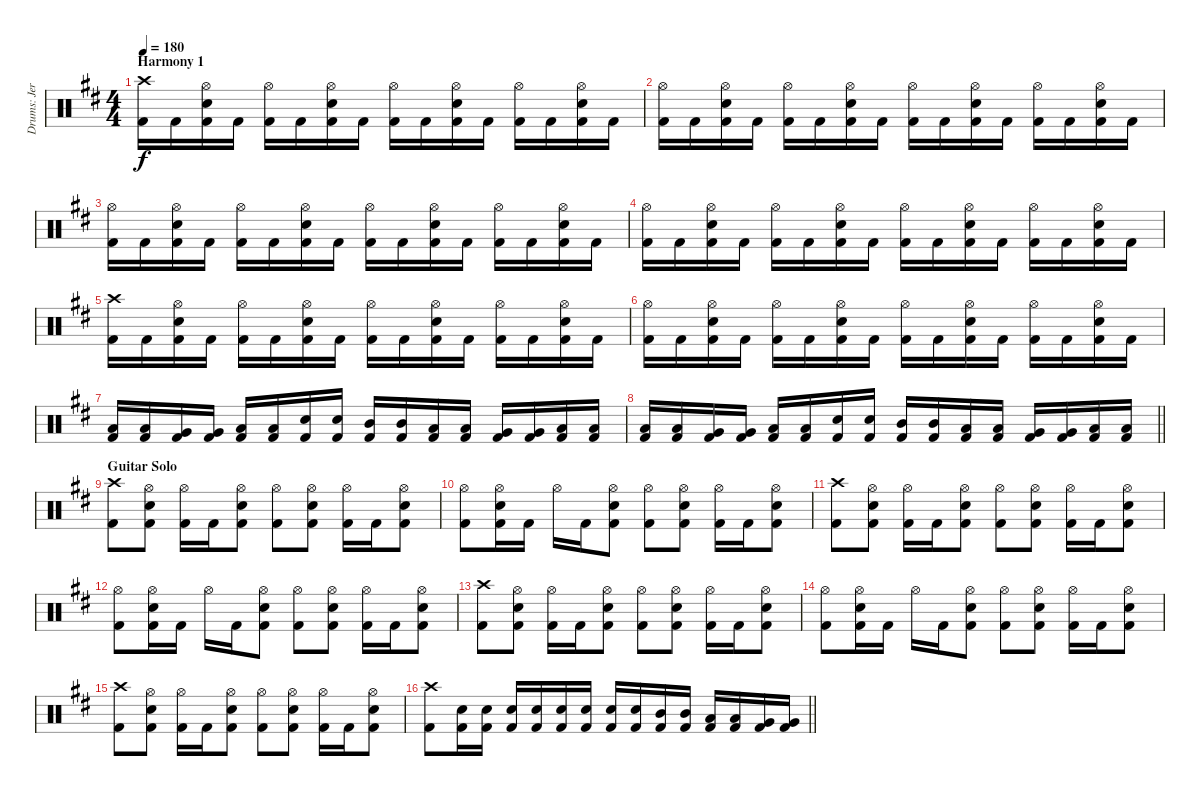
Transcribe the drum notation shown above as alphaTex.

\track ("Drums: Jere Luokkamäki" "Drums: Jer") {instrument percussion}
\staff {score}
\articulation defaults
\ts (4 4)
\section ("" "Harmony 1")
\tempo 180
\clef neutral
\ks bminor
("Crash high (hit)" "Kick (hit) 2").16{dy f} "Kick (hit) 2".16 ("Hi-Hat (open)" "Electric Snare (hit)" "Kick (hit) 2").16 "Kick (hit) 2".16 ("Hi-Hat (open)" "Kick (hit) 2").16 "Kick (hit) 2".16 ("Hi-Hat (open)" "Electric Snare (hit)" "Kick (hit) 2").16 "Kick (hit) 2".16 ("Hi-Hat (open)" "Kick (hit) 2").16 "Kick (hit) 2".16 ("Hi-Hat (open)" "Electric Snare (hit)" "Kick (hit) 2").16 "Kick (hit) 2".16 ("Hi-Hat (open)" "Kick (hit) 2").16 "Kick (hit) 2".16 ("Hi-Hat (open)" "Electric Snare (hit)" "Kick (hit) 2").16 "Kick (hit) 2".16 |
("Hi-Hat (open)" "Kick (hit) 2").16 "Kick (hit) 2".16 ("Hi-Hat (open)" "Electric Snare (hit)" "Kick (hit) 2").16 "Kick (hit) 2".16 ("Hi-Hat (open)" "Kick (hit) 2").16 "Kick (hit) 2".16 ("Hi-Hat (open)" "Electric Snare (hit)" "Kick (hit) 2").16 "Kick (hit) 2".16 ("Hi-Hat (open)" "Kick (hit) 2").16 "Kick (hit) 2".16 ("Hi-Hat (open)" "Electric Snare (hit)" "Kick (hit) 2").16 "Kick (hit) 2".16 ("Hi-Hat (open)" "Kick (hit) 2").16 "Kick (hit) 2".16 ("Hi-Hat (open)" "Electric Snare (hit)" "Kick (hit) 2").16 "Kick (hit) 2".16 |
("Hi-Hat (open)" "Kick (hit) 2").16 "Kick (hit) 2".16 ("Hi-Hat (open)" "Electric Snare (hit)" "Kick (hit) 2").16 "Kick (hit) 2".16 ("Hi-Hat (open)" "Kick (hit) 2").16 "Kick (hit) 2".16 ("Hi-Hat (open)" "Electric Snare (hit)" "Kick (hit) 2").16 "Kick (hit) 2".16 ("Hi-Hat (open)" "Kick (hit) 2").16 "Kick (hit) 2".16 ("Hi-Hat (open)" "Electric Snare (hit)" "Kick (hit) 2").16 "Kick (hit) 2".16 ("Hi-Hat (open)" "Kick (hit) 2").16 "Kick (hit) 2".16 ("Hi-Hat (open)" "Electric Snare (hit)" "Kick (hit) 2").16 "Kick (hit) 2".16 |
("Hi-Hat (open)" "Kick (hit) 2").16 "Kick (hit) 2".16 ("Hi-Hat (open)" "Electric Snare (hit)" "Kick (hit) 2").16 "Kick (hit) 2".16 ("Hi-Hat (open)" "Kick (hit) 2").16 "Kick (hit) 2".16 ("Hi-Hat (open)" "Electric Snare (hit)" "Kick (hit) 2").16 "Kick (hit) 2".16 ("Hi-Hat (open)" "Kick (hit) 2").16 "Kick (hit) 2".16 ("Hi-Hat (open)" "Electric Snare (hit)" "Kick (hit) 2").16 "Kick (hit) 2".16 ("Hi-Hat (open)" "Kick (hit) 2").16 "Kick (hit) 2".16 ("Hi-Hat (open)" "Electric Snare (hit)" "Kick (hit) 2").16 "Kick (hit) 2".16 |
("Crash high (hit)" "Kick (hit) 2").16 "Kick (hit) 2".16 ("Hi-Hat (open)" "Electric Snare (hit)" "Kick (hit) 2").16 "Kick (hit) 2".16 ("Hi-Hat (open)" "Kick (hit) 2").16 "Kick (hit) 2".16 ("Hi-Hat (open)" "Electric Snare (hit)" "Kick (hit) 2").16 "Kick (hit) 2".16 ("Hi-Hat (open)" "Kick (hit) 2").16 "Kick (hit) 2".16 ("Hi-Hat (open)" "Electric Snare (hit)" "Kick (hit) 2").16 "Kick (hit) 2".16 ("Hi-Hat (open)" "Kick (hit) 2").16 "Kick (hit) 2".16 ("Hi-Hat (open)" "Electric Snare (hit)" "Kick (hit) 2").16 "Kick (hit) 2".16 |
("Hi-Hat (open)" "Kick (hit) 2").16 "Kick (hit) 2".16 ("Hi-Hat (open)" "Electric Snare (hit)" "Kick (hit) 2").16 "Kick (hit) 2".16 ("Hi-Hat (open)" "Kick (hit) 2").16 "Kick (hit) 2".16 ("Hi-Hat (open)" "Electric Snare (hit)" "Kick (hit) 2").16 "Kick (hit) 2".16 ("Hi-Hat (open)" "Kick (hit) 2").16 "Kick (hit) 2".16 ("Hi-Hat (open)" "Electric Snare (hit)" "Kick (hit) 2").16 "Kick (hit) 2".16 ("Hi-Hat (open)" "Kick (hit) 2").16 "Kick (hit) 2".16 ("Hi-Hat (open)" "Electric Snare (hit)" "Kick (hit) 2").16 "Kick (hit) 2".16 |
("Low Tom (hit)" "Kick (hit) 2").16 ("Low Tom (hit)" "Kick (hit) 2").16 ("Very Low Tom (hit)" "Kick (hit) 2").16 ("Very Low Tom (hit)" "Kick (hit) 2").16 ("Low Floor Tom (hit)" "Kick (hit) 2").16 ("Low Floor Tom (hit)" "Kick (hit) 2").16 ("Electric Snare (hit)" "Kick (hit) 2").16 ("Electric Snare (hit)" "Kick (hit) 2").16 ("Mid Tom (hit)" "Kick (hit) 2").16 ("Mid Tom (hit)" "Kick (hit) 2").16 ("Low Tom (hit)" "Kick (hit) 2").16 ("Low Tom (hit)" "Kick (hit) 2").16 ("Very Low Tom (hit)" "Kick (hit) 2").16 ("Very Low Tom (hit)" "Kick (hit) 2").16 ("Low Floor Tom (hit)" "Kick (hit) 2").16 ("Low Floor Tom (hit)" "Kick (hit) 2").16 |
\barLineRight lightlight
("Low Tom (hit)" "Kick (hit) 2").16 ("Low Tom (hit)" "Kick (hit) 2").16 ("Very Low Tom (hit)" "Kick (hit) 2").16 ("Very Low Tom (hit)" "Kick (hit) 2").16 ("Low Floor Tom (hit)" "Kick (hit) 2").16 ("Low Floor Tom (hit)" "Kick (hit) 2").16 ("Electric Snare (hit)" "Kick (hit) 2").16 ("Electric Snare (hit)" "Kick (hit) 2").16 ("Mid Tom (hit)" "Kick (hit) 2").16 ("Mid Tom (hit)" "Kick (hit) 2").16 ("Low Tom (hit)" "Kick (hit) 2").16 ("Low Tom (hit)" "Kick (hit) 2").16 ("Very Low Tom (hit)" "Kick (hit) 2").16 ("Very Low Tom (hit)" "Kick (hit) 2").16 ("Low Floor Tom (hit)" "Kick (hit) 2").16 ("Low Floor Tom (hit)" "Kick (hit) 2").16 |
\section ("" "Guitar Solo")
("Crash high (hit)" "Kick (hit) 2").8 ("Hi-Hat (open)" "Electric Snare (hit)" "Kick (hit) 2").8 ("Hi-Hat (open)" "Kick (hit) 2").16 "Kick (hit) 2".16 ("Hi-Hat (open)" "Electric Snare (hit)" "Kick (hit) 2").8 ("Hi-Hat (open)" "Kick (hit) 2").8 ("Hi-Hat (open)" "Electric Snare (hit)" "Kick (hit) 2").8 ("Hi-Hat (open)" "Kick (hit) 2").16 "Kick (hit) 2".16 ("Hi-Hat (open)" "Electric Snare (hit)" "Kick (hit) 2").8 |
("Hi-Hat (open)" "Kick (hit) 2").8 ("Hi-Hat (open)" "Electric Snare (hit)" "Kick (hit) 2").16 "Kick (hit) 2".16 "Hi-Hat (open)".16 "Kick (hit) 2".16 ("Hi-Hat (open)" "Electric Snare (hit)" "Kick (hit) 2").8 ("Hi-Hat (open)" "Kick (hit) 2").8 ("Hi-Hat (open)" "Electric Snare (hit)" "Kick (hit) 2").8 ("Hi-Hat (open)" "Kick (hit) 2").16 "Kick (hit) 2".16 ("Hi-Hat (open)" "Electric Snare (hit)" "Kick (hit) 2").8 |
("Crash high (hit)" "Kick (hit) 2").8 ("Hi-Hat (open)" "Electric Snare (hit)" "Kick (hit) 2").8 ("Hi-Hat (open)" "Kick (hit) 2").16 "Kick (hit) 2".16 ("Hi-Hat (open)" "Electric Snare (hit)" "Kick (hit) 2").8 ("Hi-Hat (open)" "Kick (hit) 2").8 ("Hi-Hat (open)" "Electric Snare (hit)" "Kick (hit) 2").8 ("Hi-Hat (open)" "Kick (hit) 2").16 "Kick (hit) 2".16 ("Hi-Hat (open)" "Electric Snare (hit)" "Kick (hit) 2").8 |
("Hi-Hat (open)" "Kick (hit) 2").8 ("Hi-Hat (open)" "Electric Snare (hit)" "Kick (hit) 2").16 "Kick (hit) 2".16 "Hi-Hat (open)".16 "Kick (hit) 2".16 ("Hi-Hat (open)" "Electric Snare (hit)" "Kick (hit) 2").8 ("Hi-Hat (open)" "Kick (hit) 2").8 ("Hi-Hat (open)" "Electric Snare (hit)" "Kick (hit) 2").8 ("Hi-Hat (open)" "Kick (hit) 2").16 "Kick (hit) 2".16 ("Hi-Hat (open)" "Electric Snare (hit)" "Kick (hit) 2").8 |
("Crash high (hit)" "Kick (hit) 2").8 ("Hi-Hat (open)" "Electric Snare (hit)" "Kick (hit) 2").8 ("Hi-Hat (open)" "Kick (hit) 2").16 "Kick (hit) 2".16 ("Hi-Hat (open)" "Electric Snare (hit)" "Kick (hit) 2").8 ("Hi-Hat (open)" "Kick (hit) 2").8 ("Hi-Hat (open)" "Electric Snare (hit)" "Kick (hit) 2").8 ("Hi-Hat (open)" "Kick (hit) 2").16 "Kick (hit) 2".16 ("Hi-Hat (open)" "Electric Snare (hit)" "Kick (hit) 2").8 |
("Hi-Hat (open)" "Kick (hit) 2").8 ("Hi-Hat (open)" "Electric Snare (hit)" "Kick (hit) 2").16 "Kick (hit) 2".16 "Hi-Hat (open)".16 "Kick (hit) 2".16 ("Hi-Hat (open)" "Electric Snare (hit)" "Kick (hit) 2").8 ("Hi-Hat (open)" "Kick (hit) 2").8 ("Hi-Hat (open)" "Electric Snare (hit)" "Kick (hit) 2").8 ("Hi-Hat (open)" "Kick (hit) 2").16 "Kick (hit) 2".16 ("Hi-Hat (open)" "Electric Snare (hit)" "Kick (hit) 2").8 |
("Crash high (hit)" "Kick (hit) 2").8 ("Hi-Hat (open)" "Electric Snare (hit)" "Kick (hit) 2").8 ("Hi-Hat (open)" "Kick (hit) 2").16 "Kick (hit) 2".16 ("Hi-Hat (open)" "Electric Snare (hit)" "Kick (hit) 2").8 ("Hi-Hat (open)" "Kick (hit) 2").8 ("Hi-Hat (open)" "Electric Snare (hit)" "Kick (hit) 2").8 ("Hi-Hat (open)" "Kick (hit) 2").16 "Kick (hit) 2".16 ("Hi-Hat (open)" "Electric Snare (hit)" "Kick (hit) 2").8 |
\barLineRight lightlight
("Crash high (hit)" "Kick (hit) 2").8 ("Electric Snare (hit)" "Kick (hit) 2").16 ("Electric Snare (hit)" "Kick (hit) 2").16 ("Electric Snare (hit)" "Kick (hit) 2").16 ("Electric Snare (hit)" "Kick (hit) 2").16 ("Electric Snare (hit)" "Kick (hit) 2").16 ("Electric Snare (hit)" "Kick (hit) 2").16 ("Electric Snare (hit)" "Kick (hit) 2").16 ("Electric Snare (hit)" "Kick (hit) 2").16 ("Mid Tom (hit)" "Kick (hit) 2").16 ("Mid Tom (hit)" "Kick (hit) 2").16 ("Low Tom (hit)" "Kick (hit) 2").16 ("Low Tom (hit)" "Kick (hit) 2").16 ("Very Low Tom (hit)" "Kick (hit) 2").16 ("Very Low Tom (hit)" "Kick (hit) 2").16
